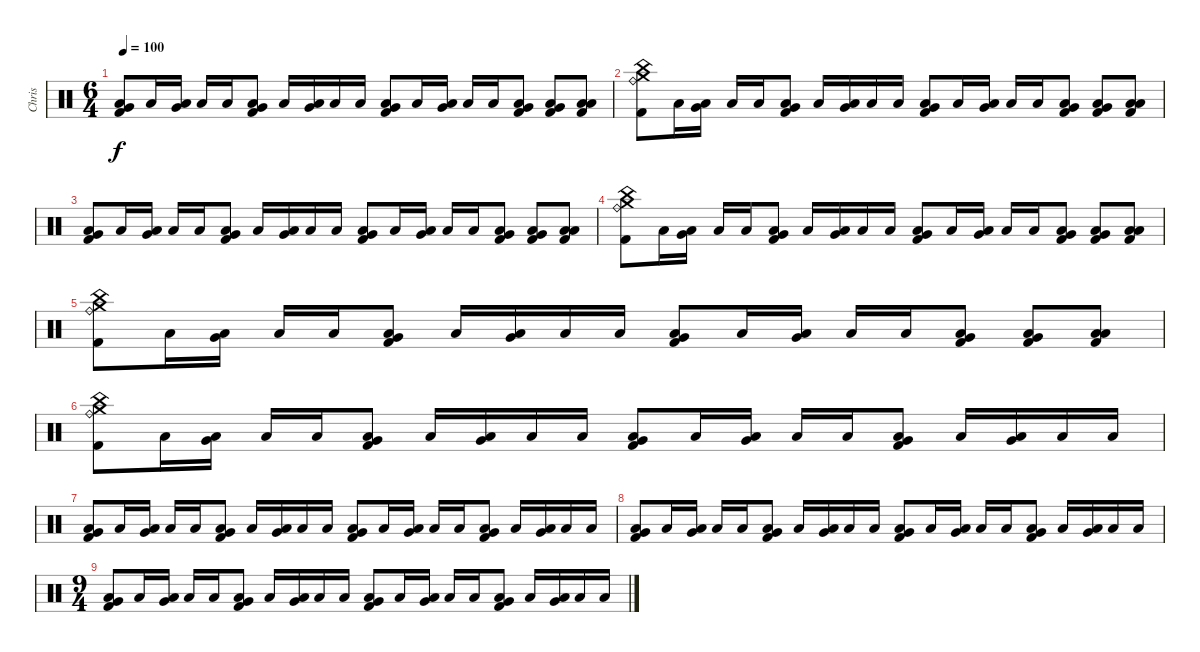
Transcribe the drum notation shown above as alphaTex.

\track ("Chris" "Chris") {instrument percussion}
\staff {score}
\articulation defaults
\ts (6 4)
\tempo 100
\clef neutral
\ks c
("Very Low Tom (hit)" "Low Floor Tom (hit)" "Kick (hit) 2").8{dy f} "Low Floor Tom (hit)".16 ("Very Low Tom (hit)" "Low Floor Tom (hit)").16 "Low Floor Tom (hit)".16 "Low Floor Tom (hit)".16 ("Very Low Tom (hit)" "Low Floor Tom (hit)" "Kick (hit) 2").8 "Low Floor Tom (hit)".16 ("Very Low Tom (hit)" "Low Floor Tom (hit)").16 "Low Floor Tom (hit)".16 "Low Floor Tom (hit)".16 ("Very Low Tom (hit)" "Low Floor Tom (hit)" "Kick (hit) 2").8 "Low Floor Tom (hit)".16 ("Very Low Tom (hit)" "Low Floor Tom (hit)").16 "Low Floor Tom (hit)".16 "Low Floor Tom (hit)".16 ("Very Low Tom (hit)" "Low Tom (hit)" "Kick (hit) 2").8 ("Low Floor Tom (hit)" "Very Low Tom (hit)" "Kick (hit) 2").8 ("Low Floor Tom (hit)" "Low Floor Tom (hit)" "Kick (hit) 2").8 |
("Crash medium (hit)" "Ride (bell)" "China (hit)" "Kick (hit) 2").8 "Low Floor Tom (hit)".16 ("Very Low Tom (hit)" "Low Floor Tom (hit)").16 "Low Floor Tom (hit)".16 "Low Floor Tom (hit)".16 ("Very Low Tom (hit)" "Low Floor Tom (hit)" "Kick (hit) 2").8 "Low Floor Tom (hit)".16 ("Very Low Tom (hit)" "Low Floor Tom (hit)").16 "Low Floor Tom (hit)".16 "Low Floor Tom (hit)".16 ("Very Low Tom (hit)" "Low Floor Tom (hit)" "Kick (hit) 2").8 "Low Floor Tom (hit)".16 ("Very Low Tom (hit)" "Low Floor Tom (hit)").16 "Low Floor Tom (hit)".16 "Low Floor Tom (hit)".16 ("Very Low Tom (hit)" "Low Tom (hit)" "Kick (hit) 2").8 ("Low Floor Tom (hit)" "Very Low Tom (hit)" "Kick (hit) 2").8 ("Low Floor Tom (hit)" "Low Floor Tom (hit)" "Kick (hit) 2").8 |
("Very Low Tom (hit)" "Low Floor Tom (hit)" "Kick (hit) 2").8 "Low Floor Tom (hit)".16 ("Very Low Tom (hit)" "Low Floor Tom (hit)").16 "Low Floor Tom (hit)".16 "Low Floor Tom (hit)".16 ("Very Low Tom (hit)" "Low Floor Tom (hit)" "Kick (hit) 2").8 "Low Floor Tom (hit)".16 ("Very Low Tom (hit)" "Low Floor Tom (hit)").16 "Low Floor Tom (hit)".16 "Low Floor Tom (hit)".16 ("Very Low Tom (hit)" "Low Floor Tom (hit)" "Kick (hit) 2").8 "Low Floor Tom (hit)".16 ("Very Low Tom (hit)" "Low Floor Tom (hit)").16 "Low Floor Tom (hit)".16 "Low Floor Tom (hit)".16 ("Very Low Tom (hit)" "Low Tom (hit)" "Kick (hit) 2").8 ("Low Floor Tom (hit)" "Very Low Tom (hit)" "Kick (hit) 2").8 ("Low Floor Tom (hit)" "Low Floor Tom (hit)" "Kick (hit) 2").8 |
("Crash medium (hit)" "Ride (bell)" "China (hit)" "Kick (hit) 2").8 "Low Floor Tom (hit)".16 ("Very Low Tom (hit)" "Low Floor Tom (hit)").16 "Low Floor Tom (hit)".16 "Low Floor Tom (hit)".16 ("Very Low Tom (hit)" "Low Floor Tom (hit)" "Kick (hit) 2").8 "Low Floor Tom (hit)".16 ("Very Low Tom (hit)" "Low Floor Tom (hit)").16 "Low Floor Tom (hit)".16 "Low Floor Tom (hit)".16 ("Very Low Tom (hit)" "Low Floor Tom (hit)" "Kick (hit) 2").8 "Low Floor Tom (hit)".16 ("Very Low Tom (hit)" "Low Floor Tom (hit)").16 "Low Floor Tom (hit)".16 "Low Floor Tom (hit)".16 ("Very Low Tom (hit)" "Low Tom (hit)" "Kick (hit) 2").8 ("Low Floor Tom (hit)" "Very Low Tom (hit)" "Kick (hit) 2").8 ("Low Floor Tom (hit)" "Low Floor Tom (hit)" "Kick (hit) 2").8 |
("Crash medium (hit)" "Ride (bell)" "China (hit)" "Kick (hit) 2").8 "Low Floor Tom (hit)".16 ("Very Low Tom (hit)" "Low Floor Tom (hit)").16 "Low Floor Tom (hit)".16 "Low Floor Tom (hit)".16 ("Very Low Tom (hit)" "Low Floor Tom (hit)" "Kick (hit) 2").8 "Low Floor Tom (hit)".16 ("Very Low Tom (hit)" "Low Floor Tom (hit)").16 "Low Floor Tom (hit)".16 "Low Floor Tom (hit)".16 ("Very Low Tom (hit)" "Low Floor Tom (hit)" "Kick (hit) 2").8 "Low Floor Tom (hit)".16 ("Very Low Tom (hit)" "Low Floor Tom (hit)").16 "Low Floor Tom (hit)".16 "Low Floor Tom (hit)".16 ("Very Low Tom (hit)" "Low Tom (hit)" "Kick (hit) 2").8 ("Low Floor Tom (hit)" "Very Low Tom (hit)" "Kick (hit) 2").8 ("Low Floor Tom (hit)" "Low Floor Tom (hit)" "Kick (hit) 2").8 |
("Crash medium (hit)" "Ride (bell)" "China (hit)" "Kick (hit) 2").8 "Low Floor Tom (hit)".16 ("Very Low Tom (hit)" "Low Floor Tom (hit)").16 "Low Floor Tom (hit)".16 "Low Floor Tom (hit)".16 ("Very Low Tom (hit)" "Low Floor Tom (hit)" "Kick (hit) 2").8 "Low Floor Tom (hit)".16 ("Very Low Tom (hit)" "Low Floor Tom (hit)").16 "Low Floor Tom (hit)".16 "Low Floor Tom (hit)".16 ("Very Low Tom (hit)" "Low Floor Tom (hit)" "Kick (hit) 2").8 "Low Floor Tom (hit)".16 ("Very Low Tom (hit)" "Low Floor Tom (hit)").16 "Low Floor Tom (hit)".16 "Low Floor Tom (hit)".16 ("Very Low Tom (hit)" "Low Floor Tom (hit)" "Kick (hit) 2").8 "Low Floor Tom (hit)".16 ("Very Low Tom (hit)" "Low Floor Tom (hit)").16 "Low Floor Tom (hit)".16 "Low Floor Tom (hit)".16 |
("Very Low Tom (hit)" "Low Floor Tom (hit)" "Kick (hit) 2").8 "Low Floor Tom (hit)".16 ("Very Low Tom (hit)" "Low Floor Tom (hit)").16 "Low Floor Tom (hit)".16 "Low Floor Tom (hit)".16 ("Very Low Tom (hit)" "Low Floor Tom (hit)" "Kick (hit) 2").8 "Low Floor Tom (hit)".16 ("Very Low Tom (hit)" "Low Floor Tom (hit)").16 "Low Floor Tom (hit)".16 "Low Floor Tom (hit)".16 ("Very Low Tom (hit)" "Low Floor Tom (hit)" "Kick (hit) 2").8 "Low Floor Tom (hit)".16 ("Very Low Tom (hit)" "Low Floor Tom (hit)").16 "Low Floor Tom (hit)".16 "Low Floor Tom (hit)".16 ("Very Low Tom (hit)" "Low Floor Tom (hit)" "Kick (hit) 2").8 "Low Floor Tom (hit)".16 ("Very Low Tom (hit)" "Low Floor Tom (hit)").16 "Low Floor Tom (hit)".16 "Low Floor Tom (hit)".16 |
("Very Low Tom (hit)" "Low Floor Tom (hit)" "Kick (hit) 2").8 "Low Floor Tom (hit)".16 ("Very Low Tom (hit)" "Low Floor Tom (hit)").16 "Low Floor Tom (hit)".16 "Low Floor Tom (hit)".16 ("Very Low Tom (hit)" "Low Floor Tom (hit)" "Kick (hit) 2").8 "Low Floor Tom (hit)".16 ("Very Low Tom (hit)" "Low Floor Tom (hit)").16 "Low Floor Tom (hit)".16 "Low Floor Tom (hit)".16 ("Very Low Tom (hit)" "Low Floor Tom (hit)" "Kick (hit) 2").8 "Low Floor Tom (hit)".16 ("Very Low Tom (hit)" "Low Floor Tom (hit)").16 "Low Floor Tom (hit)".16 "Low Floor Tom (hit)".16 ("Very Low Tom (hit)" "Low Floor Tom (hit)" "Kick (hit) 2").8 "Low Floor Tom (hit)".16 ("Very Low Tom (hit)" "Low Floor Tom (hit)").16 "Low Floor Tom (hit)".16 "Low Floor Tom (hit)".16 |
\ts (9 4)
("Very Low Tom (hit)" "Low Floor Tom (hit)" "Kick (hit) 2").8 "Low Floor Tom (hit)".16 ("Very Low Tom (hit)" "Low Floor Tom (hit)").16 "Low Floor Tom (hit)".16 "Low Floor Tom (hit)".16 ("Very Low Tom (hit)" "Low Floor Tom (hit)" "Kick (hit) 2").8 "Low Floor Tom (hit)".16 ("Very Low Tom (hit)" "Low Floor Tom (hit)").16 "Low Floor Tom (hit)".16 "Low Floor Tom (hit)".16 ("Very Low Tom (hit)" "Low Floor Tom (hit)" "Kick (hit) 2").8 "Low Floor Tom (hit)".16 ("Very Low Tom (hit)" "Low Floor Tom (hit)").16 "Low Floor Tom (hit)".16 "Low Floor Tom (hit)".16 ("Very Low Tom (hit)" "Low Floor Tom (hit)" "Kick (hit) 2").8 "Low Floor Tom (hit)".16 ("Very Low Tom (hit)" "Low Floor Tom (hit)").16 "Low Floor Tom (hit)".16 "Low Floor Tom (hit)".16
